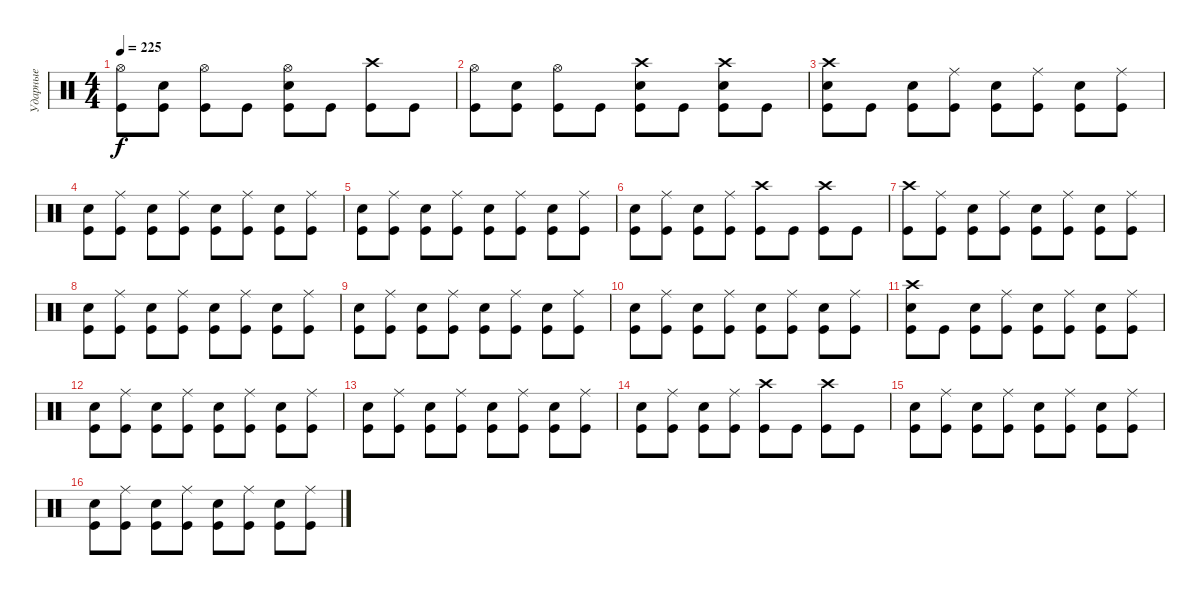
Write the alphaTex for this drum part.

\track ("Ударные" "Ударные") {instrument percussion}
\staff {score}
\articulation defaults
\ts (4 4)
\tempo 225
\clef neutral
\ks c
("Hi-Hat (open)" "Kick (hit)").8{dy f} ("Snare (hit) 2" "Kick (hit)").8 ("Hi-Hat (open)" "Kick (hit)").8 "Kick (hit)".8 ("Hi-Hat (open)" "Snare (hit) 2" "Kick (hit)").8 "Kick (hit)".8 ("Crash high (hit)" "Kick (hit)").8 "Kick (hit)".8 |
("Hi-Hat (open)" "Kick (hit)").8 ("Snare (hit) 2" "Kick (hit)").8 ("Hi-Hat (open)" "Kick (hit)").8 "Kick (hit)".8 ("Crash high (hit)" "Snare (hit) 2" "Kick (hit)").8 "Kick (hit)".8 ("Crash high (hit)" "Snare (hit) 2" "Kick (hit)").8 "Kick (hit)".8 |
("Crash high (hit)" "Snare (hit) 2" "Kick (hit)").8 "Kick (hit)".8 ("Snare (hit) 2" "Kick (hit)").8 ("Ride (middle)" "Kick (hit)").8 ("Snare (hit) 2" "Kick (hit)").8 ("Ride (middle)" "Kick (hit)").8 ("Snare (hit) 2" "Kick (hit)").8 ("Ride (middle)" "Kick (hit)").8 |
("Snare (hit) 2" "Kick (hit)").8 ("Ride (middle)" "Kick (hit)").8 ("Snare (hit) 2" "Kick (hit)").8 ("Ride (middle)" "Kick (hit)").8 ("Snare (hit) 2" "Kick (hit)").8 ("Ride (middle)" "Kick (hit)").8 ("Snare (hit) 2" "Kick (hit)").8 ("Ride (middle)" "Kick (hit)").8 |
("Snare (hit) 2" "Kick (hit)").8 ("Ride (middle)" "Kick (hit)").8 ("Snare (hit) 2" "Kick (hit)").8 ("Ride (middle)" "Kick (hit)").8 ("Snare (hit) 2" "Kick (hit)").8 ("Ride (middle)" "Kick (hit)").8 ("Snare (hit) 2" "Kick (hit)").8 ("Ride (middle)" "Kick (hit)").8 |
("Snare (hit) 2" "Kick (hit)").8 ("Ride (middle)" "Kick (hit)").8 ("Snare (hit) 2" "Kick (hit)").8 ("Ride (middle)" "Kick (hit)").8 ("Crash high (hit)" "Kick (hit)").8 "Kick (hit)".8 ("Crash high (hit)" "Kick (hit)").8 "Kick (hit)".8 |
("Crash high (hit)" "Kick (hit)").8 ("Ride (middle)" "Kick (hit)").8 ("Snare (hit) 2" "Kick (hit)").8 ("Ride (middle)" "Kick (hit)").8 ("Snare (hit) 2" "Kick (hit)").8 ("Ride (middle)" "Kick (hit)").8 ("Snare (hit) 2" "Kick (hit)").8 ("Ride (middle)" "Kick (hit)").8 |
("Snare (hit) 2" "Kick (hit)").8 ("Ride (middle)" "Kick (hit)").8 ("Snare (hit) 2" "Kick (hit)").8 ("Ride (middle)" "Kick (hit)").8 ("Snare (hit) 2" "Kick (hit)").8 ("Ride (middle)" "Kick (hit)").8 ("Snare (hit) 2" "Kick (hit)").8 ("Ride (middle)" "Kick (hit)").8 |
("Snare (hit) 2" "Kick (hit)").8 ("Ride (middle)" "Kick (hit)").8 ("Snare (hit) 2" "Kick (hit)").8 ("Ride (middle)" "Kick (hit)").8 ("Snare (hit) 2" "Kick (hit)").8 ("Ride (middle)" "Kick (hit)").8 ("Snare (hit) 2" "Kick (hit)").8 ("Ride (middle)" "Kick (hit)").8 |
("Snare (hit) 2" "Kick (hit)").8 ("Ride (middle)" "Kick (hit)").8 ("Snare (hit) 2" "Kick (hit)").8 ("Ride (middle)" "Kick (hit)").8 ("Snare (hit) 2" "Kick (hit)").8 ("Ride (middle)" "Kick (hit)").8 ("Snare (hit) 2" "Kick (hit)").8 ("Ride (middle)" "Kick (hit)").8 |
("Crash high (hit)" "Snare (hit) 2" "Kick (hit)").8 "Kick (hit)".8 ("Snare (hit) 2" "Kick (hit)").8 ("Ride (middle)" "Kick (hit)").8 ("Snare (hit) 2" "Kick (hit)").8 ("Ride (middle)" "Kick (hit)").8 ("Snare (hit) 2" "Kick (hit)").8 ("Ride (middle)" "Kick (hit)").8 |
("Snare (hit) 2" "Kick (hit)").8 ("Ride (middle)" "Kick (hit)").8 ("Snare (hit) 2" "Kick (hit)").8 ("Ride (middle)" "Kick (hit)").8 ("Snare (hit) 2" "Kick (hit)").8 ("Ride (middle)" "Kick (hit)").8 ("Snare (hit) 2" "Kick (hit)").8 ("Ride (middle)" "Kick (hit)").8 |
("Snare (hit) 2" "Kick (hit)").8 ("Ride (middle)" "Kick (hit)").8 ("Snare (hit) 2" "Kick (hit)").8 ("Ride (middle)" "Kick (hit)").8 ("Snare (hit) 2" "Kick (hit)").8 ("Ride (middle)" "Kick (hit)").8 ("Snare (hit) 2" "Kick (hit)").8 ("Ride (middle)" "Kick (hit)").8 |
("Snare (hit) 2" "Kick (hit)").8 ("Ride (middle)" "Kick (hit)").8 ("Snare (hit) 2" "Kick (hit)").8 ("Ride (middle)" "Kick (hit)").8 ("Crash high (hit)" "Kick (hit)").8 "Kick (hit)".8 ("Crash high (hit)" "Kick (hit)").8 "Kick (hit)".8 |
("Snare (hit) 2" "Kick (hit)").8 ("Ride (middle)" "Kick (hit)").8 ("Snare (hit) 2" "Kick (hit)").8 ("Ride (middle)" "Kick (hit)").8 ("Snare (hit) 2" "Kick (hit)").8 ("Ride (middle)" "Kick (hit)").8 ("Snare (hit) 2" "Kick (hit)").8 ("Ride (middle)" "Kick (hit)").8 |
("Snare (hit) 2" "Kick (hit)").8 ("Ride (middle)" "Kick (hit)").8 ("Snare (hit) 2" "Kick (hit)").8 ("Ride (middle)" "Kick (hit)").8 ("Snare (hit) 2" "Kick (hit)").8 ("Ride (middle)" "Kick (hit)").8 ("Snare (hit) 2" "Kick (hit)").8 ("Ride (middle)" "Kick (hit)").8
